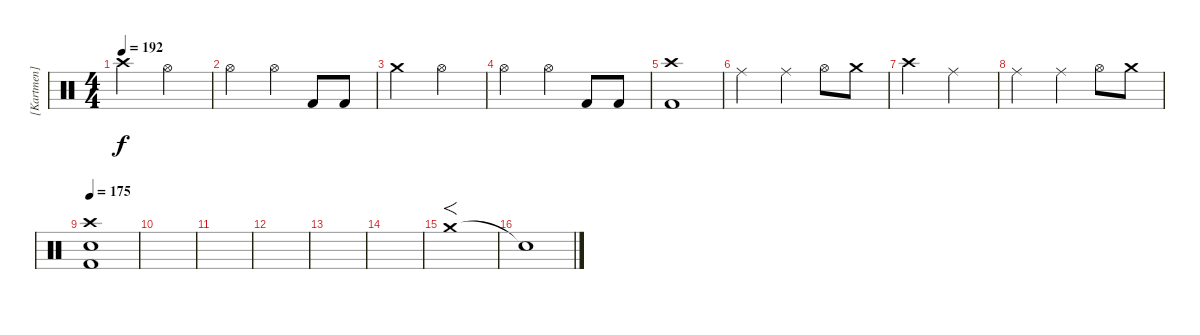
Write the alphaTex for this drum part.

\track ("[Kartmen] - Drums" "[Kartmen] ") {instrument percussion}
\staff {score}
\articulation defaults
\ts (4 4)
\tempo 192
\clef neutral
\ks c "Crash high (hit)".2{dy f} "Hi-Hat (open)".2
|
"Hi-Hat (open)".2 "Hi-Hat (open)".4 "Kick (hit) 2".8 "Kick (hit) 2".8 |
"Crash medium (hit)".2 "Hi-Hat (open)".2 |
"Hi-Hat (open)".2 "Hi-Hat (open)".4 "Kick (hit) 2".8 "Kick (hit) 2".8 |
("Crash high (hit)" "Kick (hit) 2").1 |
"Ride (middle)".2 "Ride (middle)".4 "Hi-Hat (open)".8 "Crash medium (hit)".8 |
"Crash high (hit)".2 "Ride (middle)".2 |
"Ride (middle)".2 "Ride (middle)".4 "Hi-Hat (open)".8 "Crash medium (hit)".8 |
\tempo 175
("Crash high (hit)" "Snare (hit) 2" "Kick (hit) 2").1 |
|
|
|
|
|
"Crash medium (hit)".1{f} |
"Snare (hit)"{t}.1
